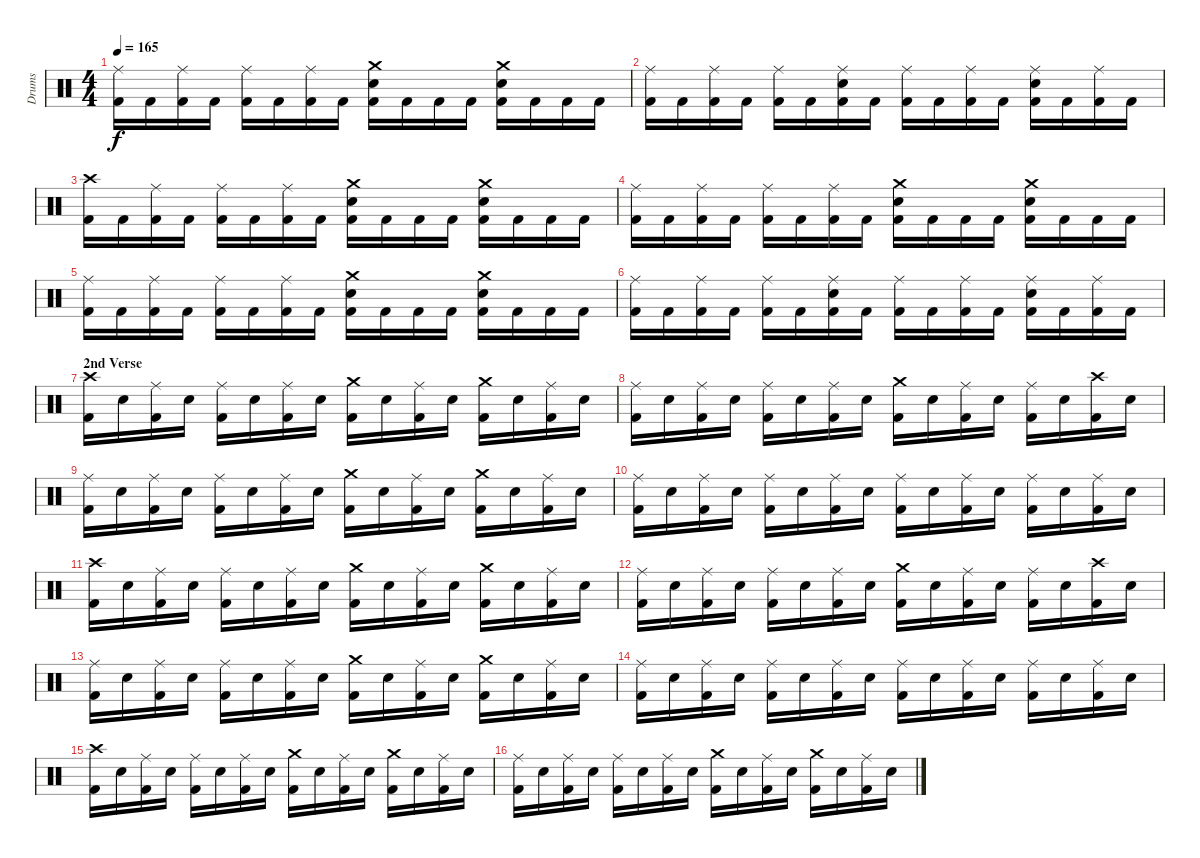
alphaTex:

\track ("Drums" "Drums") {instrument percussion}
\staff {score}
\articulation defaults
\ts (4 4)
\tempo 165
\clef neutral
\ks c
("Kick (hit) 2" "Ride (middle)").16{dy f} "Kick (hit) 2".16 ("Kick (hit) 2" "Ride (middle)").16 "Kick (hit) 2".16 ("Kick (hit) 2" "Ride (middle)").16 "Kick (hit) 2".16 ("Kick (hit) 2" "Ride (middle)").16 "Kick (hit) 2".16 ("Kick (hit) 2" "Electric Snare (hit)" "Crash medium (hit)").16 "Kick (hit) 2".16 "Kick (hit) 2".16 "Kick (hit) 2".16 ("Kick (hit) 2" "Electric Snare (hit)" "Crash medium (hit)").16 "Kick (hit) 2".16 "Kick (hit) 2".16 "Kick (hit) 2".16 |
("Kick (hit) 2" "Ride (middle)").16 "Kick (hit) 2".16 ("Kick (hit) 2" "Ride (middle)").16 "Kick (hit) 2".16 ("Kick (hit) 2" "Ride (middle)").16 "Kick (hit) 2".16 ("Kick (hit) 2" "Electric Snare (hit)" "Ride (middle)").16 "Kick (hit) 2".16 ("Kick (hit) 2" "Ride (middle)").16 "Kick (hit) 2".16 ("Kick (hit) 2" "Ride (middle)").16 "Kick (hit) 2".16 ("Kick (hit) 2" "Electric Snare (hit)" "Ride (middle)").16 "Kick (hit) 2".16 ("Kick (hit) 2" "Ride (middle)").16 "Kick (hit) 2".16 |
("Kick (hit) 2" "Crash high (hit)").16 "Kick (hit) 2".16 ("Kick (hit) 2" "Ride (middle)").16 "Kick (hit) 2".16 ("Kick (hit) 2" "Ride (middle)").16 "Kick (hit) 2".16 ("Kick (hit) 2" "Ride (middle)").16 "Kick (hit) 2".16 ("Kick (hit) 2" "Electric Snare (hit)" "Crash medium (hit)").16 "Kick (hit) 2".16 "Kick (hit) 2".16 "Kick (hit) 2".16 ("Kick (hit) 2" "Electric Snare (hit)" "Crash medium (hit)").16 "Kick (hit) 2".16 "Kick (hit) 2".16 "Kick (hit) 2".16 |
("Kick (hit) 2" "Ride (middle)").16 "Kick (hit) 2".16 ("Kick (hit) 2" "Ride (middle)").16 "Kick (hit) 2".16 ("Kick (hit) 2" "Ride (middle)").16 "Kick (hit) 2".16 ("Kick (hit) 2" "Ride (middle)").16 "Kick (hit) 2".16 ("Kick (hit) 2" "Electric Snare (hit)" "Crash medium (hit)").16 "Kick (hit) 2".16 "Kick (hit) 2".16 "Kick (hit) 2".16 ("Kick (hit) 2" "Electric Snare (hit)" "Crash medium (hit)").16 "Kick (hit) 2".16 "Kick (hit) 2".16 "Kick (hit) 2".16 |
("Kick (hit) 2" "Ride (middle)").16 "Kick (hit) 2".16 ("Kick (hit) 2" "Ride (middle)").16 "Kick (hit) 2".16 ("Kick (hit) 2" "Ride (middle)").16 "Kick (hit) 2".16 ("Kick (hit) 2" "Ride (middle)").16 "Kick (hit) 2".16 ("Kick (hit) 2" "Electric Snare (hit)" "Crash medium (hit)").16 "Kick (hit) 2".16 "Kick (hit) 2".16 "Kick (hit) 2".16 ("Kick (hit) 2" "Electric Snare (hit)" "Crash medium (hit)").16 "Kick (hit) 2".16 "Kick (hit) 2".16 "Kick (hit) 2".16 |
("Kick (hit) 2" "Ride (middle)").16 "Kick (hit) 2".16 ("Kick (hit) 2" "Ride (middle)").16 "Kick (hit) 2".16 ("Kick (hit) 2" "Ride (middle)").16 "Kick (hit) 2".16 ("Kick (hit) 2" "Electric Snare (hit)" "Ride (middle)").16 "Kick (hit) 2".16 ("Kick (hit) 2" "Ride (middle)").16 "Kick (hit) 2".16 ("Kick (hit) 2" "Ride (middle)").16 "Kick (hit) 2".16 ("Kick (hit) 2" "Electric Snare (hit)" "Ride (middle)").16 "Kick (hit) 2".16 ("Kick (hit) 2" "Ride (middle)").16 "Kick (hit) 2".16 |
\section ("" "2nd Verse")
("Kick (hit) 2" "Crash high (hit)").16 "Electric Snare (hit)".16 ("Kick (hit) 2" "Ride (middle)").16 "Electric Snare (hit)".16 ("Kick (hit) 2" "Ride (middle)").16 "Electric Snare (hit)".16 ("Kick (hit) 2" "Ride (middle)").16 "Electric Snare (hit)".16 ("Kick (hit) 2" "Crash medium (hit)").16 "Electric Snare (hit)".16 ("Kick (hit) 2" "Ride (middle)").16 "Electric Snare (hit)".16 ("Kick (hit) 2" "Crash medium (hit)").16 "Electric Snare (hit)".16 ("Kick (hit) 2" "Ride (middle)").16 "Electric Snare (hit)".16 |
("Kick (hit) 2" "Ride (middle)").16 "Electric Snare (hit)".16 ("Kick (hit) 2" "Ride (middle)").16 "Electric Snare (hit)".16 ("Kick (hit) 2" "Ride (middle)").16 "Electric Snare (hit)".16 ("Kick (hit) 2" "Ride (middle)").16 "Electric Snare (hit)".16 ("Kick (hit) 2" "Crash medium (hit)").16 "Electric Snare (hit)".16 ("Kick (hit) 2" "Ride (middle)").16 "Electric Snare (hit)".16 ("Kick (hit) 2" "Ride (middle)").16 "Electric Snare (hit)".16 ("Kick (hit) 2" "Crash high (hit)").16 "Electric Snare (hit)".16 |
("Kick (hit) 2" "Ride (middle)").16 "Electric Snare (hit)".16 ("Kick (hit) 2" "Ride (middle)").16 "Electric Snare (hit)".16 ("Kick (hit) 2" "Ride (middle)").16 "Electric Snare (hit)".16 ("Kick (hit) 2" "Ride (middle)").16 "Electric Snare (hit)".16 ("Kick (hit) 2" "Crash medium (hit)").16 "Electric Snare (hit)".16 ("Kick (hit) 2" "Ride (middle)").16 "Electric Snare (hit)".16 ("Kick (hit) 2" "Crash medium (hit)").16 "Electric Snare (hit)".16 ("Kick (hit) 2" "Ride (middle)").16 "Electric Snare (hit)".16 |
("Kick (hit) 2" "Ride (middle)").16 "Electric Snare (hit)".16 ("Kick (hit) 2" "Ride (middle)").16 "Electric Snare (hit)".16 ("Kick (hit) 2" "Ride (middle)").16 "Electric Snare (hit)".16 ("Kick (hit) 2" "Ride (middle)").16 "Electric Snare (hit)".16 ("Kick (hit) 2" "Ride (middle)").16 "Electric Snare (hit)".16 ("Kick (hit) 2" "Ride (middle)").16 "Electric Snare (hit)".16 ("Kick (hit) 2" "Ride (middle)").16 "Electric Snare (hit)".16 ("Kick (hit) 2" "Ride (middle)").16 "Electric Snare (hit)".16 |
("Kick (hit) 2" "Crash high (hit)").16 "Electric Snare (hit)".16 ("Kick (hit) 2" "Ride (middle)").16 "Electric Snare (hit)".16 ("Kick (hit) 2" "Ride (middle)").16 "Electric Snare (hit)".16 ("Kick (hit) 2" "Ride (middle)").16 "Electric Snare (hit)".16 ("Kick (hit) 2" "Crash medium (hit)").16 "Electric Snare (hit)".16 ("Kick (hit) 2" "Ride (middle)").16 "Electric Snare (hit)".16 ("Kick (hit) 2" "Crash medium (hit)").16 "Electric Snare (hit)".16 ("Kick (hit) 2" "Ride (middle)").16 "Electric Snare (hit)".16 |
("Kick (hit) 2" "Ride (middle)").16 "Electric Snare (hit)".16 ("Kick (hit) 2" "Ride (middle)").16 "Electric Snare (hit)".16 ("Kick (hit) 2" "Ride (middle)").16 "Electric Snare (hit)".16 ("Kick (hit) 2" "Ride (middle)").16 "Electric Snare (hit)".16 ("Kick (hit) 2" "Crash medium (hit)").16 "Electric Snare (hit)".16 ("Kick (hit) 2" "Ride (middle)").16 "Electric Snare (hit)".16 ("Kick (hit) 2" "Ride (middle)").16 "Electric Snare (hit)".16 ("Kick (hit) 2" "Crash high (hit)").16 "Electric Snare (hit)".16 |
("Kick (hit) 2" "Ride (middle)").16 "Electric Snare (hit)".16 ("Kick (hit) 2" "Ride (middle)").16 "Electric Snare (hit)".16 ("Kick (hit) 2" "Ride (middle)").16 "Electric Snare (hit)".16 ("Kick (hit) 2" "Ride (middle)").16 "Electric Snare (hit)".16 ("Kick (hit) 2" "Crash medium (hit)").16 "Electric Snare (hit)".16 ("Kick (hit) 2" "Ride (middle)").16 "Electric Snare (hit)".16 ("Kick (hit) 2" "Crash medium (hit)").16 "Electric Snare (hit)".16 ("Kick (hit) 2" "Ride (middle)").16 "Electric Snare (hit)".16 |
("Kick (hit) 2" "Ride (middle)").16 "Electric Snare (hit)".16 ("Kick (hit) 2" "Ride (middle)").16 "Electric Snare (hit)".16 ("Kick (hit) 2" "Ride (middle)").16 "Electric Snare (hit)".16 ("Kick (hit) 2" "Ride (middle)").16 "Electric Snare (hit)".16 ("Kick (hit) 2" "Ride (middle)").16 "Electric Snare (hit)".16 ("Kick (hit) 2" "Ride (middle)").16 "Electric Snare (hit)".16 ("Kick (hit) 2" "Ride (middle)").16 "Electric Snare (hit)".16 ("Kick (hit) 2" "Ride (middle)").16 "Electric Snare (hit)".16 |
("Kick (hit) 2" "Crash high (hit)").16 "Electric Snare (hit)".16 ("Kick (hit) 2" "Ride (middle)").16 "Electric Snare (hit)".16 ("Kick (hit) 2" "Ride (middle)").16 "Electric Snare (hit)".16 ("Kick (hit) 2" "Ride (middle)").16 "Electric Snare (hit)".16 ("Kick (hit) 2" "Crash medium (hit)").16 "Electric Snare (hit)".16 ("Kick (hit) 2" "Ride (middle)").16 "Electric Snare (hit)".16 ("Kick (hit) 2" "Crash medium (hit)").16 "Electric Snare (hit)".16 ("Kick (hit) 2" "Ride (middle)").16 "Electric Snare (hit)".16 |
("Kick (hit) 2" "Ride (middle)").16 "Electric Snare (hit)".16 ("Kick (hit) 2" "Ride (middle)").16 "Electric Snare (hit)".16 ("Kick (hit) 2" "Ride (middle)").16 "Electric Snare (hit)".16 ("Kick (hit) 2" "Ride (middle)").16 "Electric Snare (hit)".16 ("Kick (hit) 2" "Crash medium (hit)").16 "Electric Snare (hit)".16 ("Kick (hit) 2" "Ride (middle)").16 "Electric Snare (hit)".16 ("Kick (hit) 2" "Crash medium (hit)").16 "Electric Snare (hit)".16 ("Kick (hit) 2" "Ride (middle)").16 "Electric Snare (hit)".16
